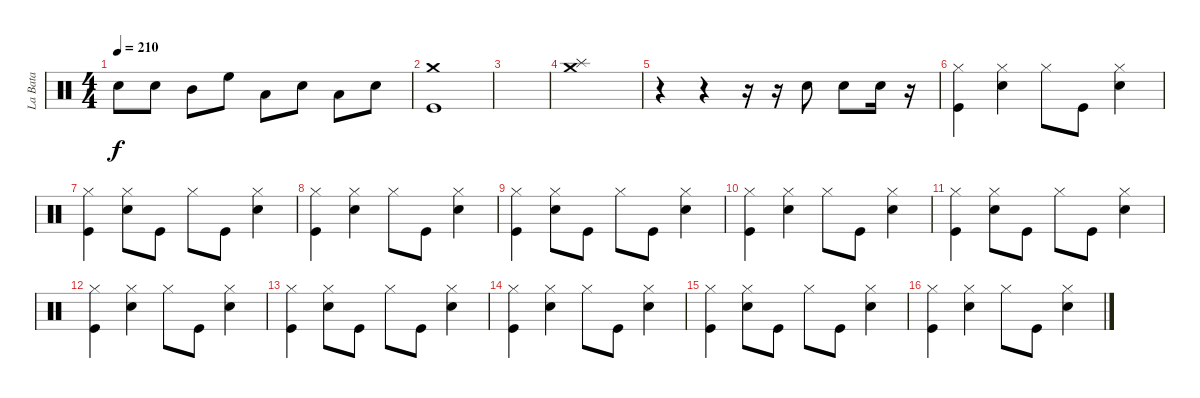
\track ("La Bata" "La Bata") {instrument percussion}
\staff {score}
\articulation defaults
\ts (4 4)
\tempo 210
\clef neutral
\ks c "Snare (hit) 2".8{dy f} "Snare (hit) 2".8 "Mid Tom (hit)".8 "High Floor Tom (hit)".8 "Low Tom (hit)".8 "Snare (hit) 2".8 "Low Tom (hit)".8 "Snare (hit) 2".8
|
("Kick (hit)" "Crash medium (hit)").1 |
|
("Splash (hit)" "Crash medium (hit)").1 |
r.4 r.4 r.16 r.16 "Snare (hit) 2".8 "Snare (hit) 2".8 "Snare (hit) 2".16 r.16 |
("Kick (hit)" "Hi-Hat (closed)").4 ("Snare (hit) 2" "Hi-Hat (closed)").4 "Hi-Hat (closed)".8 "Kick (hit)".8 ("Snare (hit) 2" "Hi-Hat (closed)").4 |
("Hi-Hat (closed)" "Kick (hit)").4 ("Snare (hit) 2" "Hi-Hat (closed)").8 "Kick (hit)".8 "Hi-Hat (closed)".8 "Kick (hit)".8 ("Hi-Hat (closed)" "Snare (hit) 2").4 |
("Kick (hit)" "Hi-Hat (closed)").4 ("Snare (hit) 2" "Hi-Hat (closed)").4 "Hi-Hat (closed)".8 "Kick (hit)".8 ("Snare (hit) 2" "Hi-Hat (closed)").4 |
("Hi-Hat (closed)" "Kick (hit)").4 ("Snare (hit) 2" "Hi-Hat (closed)").8 "Kick (hit)".8 "Hi-Hat (closed)".8 "Kick (hit)".8 ("Hi-Hat (closed)" "Snare (hit) 2").4 |
("Kick (hit)" "Hi-Hat (closed)").4 ("Snare (hit) 2" "Hi-Hat (closed)").4 "Hi-Hat (closed)".8 "Kick (hit)".8 ("Snare (hit) 2" "Hi-Hat (closed)").4 |
("Hi-Hat (closed)" "Kick (hit)").4 ("Snare (hit) 2" "Hi-Hat (closed)").8 "Kick (hit)".8 "Hi-Hat (closed)".8 "Kick (hit)".8 ("Hi-Hat (closed)" "Snare (hit) 2").4 |
("Kick (hit)" "Hi-Hat (closed)").4 ("Snare (hit) 2" "Hi-Hat (closed)").4 "Hi-Hat (closed)".8 "Kick (hit)".8 ("Snare (hit) 2" "Hi-Hat (closed)").4 |
("Hi-Hat (closed)" "Kick (hit)").4 ("Snare (hit) 2" "Hi-Hat (closed)").8 "Kick (hit)".8 "Hi-Hat (closed)".8 "Kick (hit)".8 ("Hi-Hat (closed)" "Snare (hit) 2").4 |
("Kick (hit)" "Hi-Hat (closed)").4 ("Snare (hit) 2" "Hi-Hat (closed)").4 "Hi-Hat (closed)".8 "Kick (hit)".8 ("Snare (hit) 2" "Hi-Hat (closed)").4 |
("Hi-Hat (closed)" "Kick (hit)").4 ("Snare (hit) 2" "Hi-Hat (closed)").8 "Kick (hit)".8 "Hi-Hat (closed)".8 "Kick (hit)".8 ("Hi-Hat (closed)" "Snare (hit) 2").4 |
("Kick (hit)" "Hi-Hat (closed)").4 ("Snare (hit) 2" "Hi-Hat (closed)").4 "Hi-Hat (closed)".8 "Kick (hit)".8 ("Snare (hit) 2" "Hi-Hat (closed)").4
